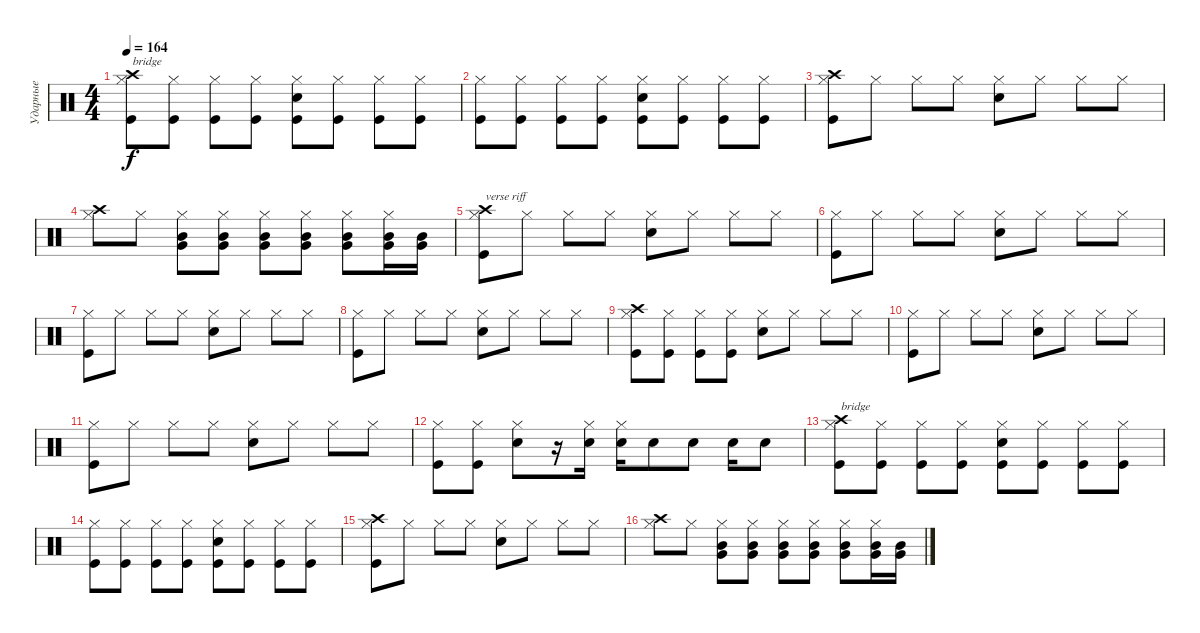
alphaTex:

\track ("Ударные" "Ударные") {instrument percussion}
\staff {score}
\articulation defaults
\ts (4 4)
\tempo 164
\clef neutral
\ks c
("Hi-Hat (closed)" "Crash high (hit)" "Kick (hit)").8{txt "bridge" dy f} ("Hi-Hat (closed)" "Kick (hit)").8 ("Hi-Hat (closed)" "Kick (hit)").8 ("Hi-Hat (closed)" "Kick (hit)").8 ("Hi-Hat (closed)" "Kick (hit)" "Snare (hit) 2").8 ("Hi-Hat (closed)" "Kick (hit)").8 ("Hi-Hat (closed)" "Kick (hit)").8 ("Hi-Hat (closed)" "Kick (hit)").8 |
("Hi-Hat (closed)" "Kick (hit)").8 ("Hi-Hat (closed)" "Kick (hit)").8 ("Hi-Hat (closed)" "Kick (hit)").8 ("Hi-Hat (closed)" "Kick (hit)").8 ("Hi-Hat (closed)" "Kick (hit)" "Snare (hit) 2").8 ("Hi-Hat (closed)" "Kick (hit)").8 ("Hi-Hat (closed)" "Kick (hit)").8 ("Hi-Hat (closed)" "Kick (hit)").8 |
("Hi-Hat (closed)" "Crash high (hit)" "Kick (hit)").8 "Hi-Hat (closed)".8 "Hi-Hat (closed)".8 "Hi-Hat (closed)".8 ("Hi-Hat (closed)" "Snare (hit) 2").8 "Hi-Hat (closed)".8 "Hi-Hat (closed)".8 "Hi-Hat (closed)".8 |
("Hi-Hat (closed)" "Crash high (hit)").8 "Hi-Hat (closed)".8 ("Hi-Hat (closed)" "Mid Tom (hit)" "Very Low Tom (hit)").8 ("Hi-Hat (closed)" "Mid Tom (hit)" "Very Low Tom (hit)").8 ("Hi-Hat (closed)" "Mid Tom (hit)" "Very Low Tom (hit)").8 ("Hi-Hat (closed)" "Mid Tom (hit)" "Very Low Tom (hit)").8 ("Hi-Hat (closed)" "Mid Tom (hit)" "Very Low Tom (hit)").8 ("Hi-Hat (closed)" "Mid Tom (hit)" "Very Low Tom (hit)").16 ("Very Low Tom (hit)" "Mid Tom (hit)").16 |
("Hi-Hat (closed)" "Crash high (hit)" "Kick (hit)").8{txt "verse riff"} "Hi-Hat (closed)".8 "Hi-Hat (closed)".8 "Hi-Hat (closed)".8 ("Hi-Hat (closed)" "Snare (hit) 2").8 "Hi-Hat (closed)".8 "Hi-Hat (closed)".8 "Hi-Hat (closed)".8 |
("Hi-Hat (closed)" "Kick (hit)").8 "Hi-Hat (closed)".8 "Hi-Hat (closed)".8 "Hi-Hat (closed)".8 ("Hi-Hat (closed)" "Snare (hit) 2").8 "Hi-Hat (closed)".8 "Hi-Hat (closed)".8 "Hi-Hat (closed)".8 |
("Hi-Hat (closed)" "Kick (hit)").8 "Hi-Hat (closed)".8 "Hi-Hat (closed)".8 "Hi-Hat (closed)".8 ("Hi-Hat (closed)" "Snare (hit) 2").8 "Hi-Hat (closed)".8 "Hi-Hat (closed)".8 "Hi-Hat (closed)".8 |
("Hi-Hat (closed)" "Kick (hit)").8 "Hi-Hat (closed)".8 "Hi-Hat (closed)".8 "Hi-Hat (closed)".8 ("Hi-Hat (closed)" "Snare (hit) 2").8 "Hi-Hat (closed)".8 "Hi-Hat (closed)".8 "Hi-Hat (closed)".8 |
("Hi-Hat (closed)" "Crash high (hit)" "Kick (hit)").8 ("Hi-Hat (closed)" "Kick (hit)").8 ("Hi-Hat (closed)" "Kick (hit)").8 ("Hi-Hat (closed)" "Kick (hit)").8 ("Hi-Hat (closed)" "Snare (hit) 2").8 "Hi-Hat (closed)".8 "Hi-Hat (closed)".8 "Hi-Hat (closed)".8 |
("Hi-Hat (closed)" "Kick (hit)").8 "Hi-Hat (closed)".8 "Hi-Hat (closed)".8 "Hi-Hat (closed)".8 ("Hi-Hat (closed)" "Snare (hit) 2").8 "Hi-Hat (closed)".8 "Hi-Hat (closed)".8 "Hi-Hat (closed)".8 |
("Hi-Hat (closed)" "Kick (hit)").8 "Hi-Hat (closed)".8 "Hi-Hat (closed)".8 "Hi-Hat (closed)".8 ("Hi-Hat (closed)" "Snare (hit) 2").8 "Hi-Hat (closed)".8 "Hi-Hat (closed)".8 "Hi-Hat (closed)".8 |
("Hi-Hat (closed)" "Kick (hit)").8 ("Hi-Hat (closed)" "Kick (hit)").8 ("Hi-Hat (closed)" "Snare (hit) 2").8 r.16 ("Hi-Hat (closed)" "Snare (hit) 2").16 ("Hi-Hat (closed)" "Snare (hit) 2").16 "Snare (hit) 2".8 "Snare (hit) 2".8 "Snare (hit) 2".16 "Snare (hit) 2".8 |
("Hi-Hat (closed)" "Crash high (hit)" "Kick (hit)").8{txt "bridge"} ("Hi-Hat (closed)" "Kick (hit)").8 ("Hi-Hat (closed)" "Kick (hit)").8 ("Hi-Hat (closed)" "Kick (hit)").8 ("Hi-Hat (closed)" "Kick (hit)" "Snare (hit) 2").8 ("Hi-Hat (closed)" "Kick (hit)").8 ("Hi-Hat (closed)" "Kick (hit)").8 ("Hi-Hat (closed)" "Kick (hit)").8 |
("Hi-Hat (closed)" "Kick (hit)").8 ("Hi-Hat (closed)" "Kick (hit)").8 ("Hi-Hat (closed)" "Kick (hit)").8 ("Hi-Hat (closed)" "Kick (hit)").8 ("Hi-Hat (closed)" "Kick (hit)" "Snare (hit) 2").8 ("Hi-Hat (closed)" "Kick (hit)").8 ("Hi-Hat (closed)" "Kick (hit)").8 ("Hi-Hat (closed)" "Kick (hit)").8 |
("Hi-Hat (closed)" "Crash high (hit)" "Kick (hit)").8 "Hi-Hat (closed)".8 "Hi-Hat (closed)".8 "Hi-Hat (closed)".8 ("Hi-Hat (closed)" "Snare (hit) 2").8 "Hi-Hat (closed)".8 "Hi-Hat (closed)".8 "Hi-Hat (closed)".8 |
("Hi-Hat (closed)" "Crash high (hit)").8 "Hi-Hat (closed)".8 ("Hi-Hat (closed)" "Mid Tom (hit)" "Very Low Tom (hit)").8 ("Hi-Hat (closed)" "Mid Tom (hit)" "Very Low Tom (hit)").8 ("Hi-Hat (closed)" "Mid Tom (hit)" "Very Low Tom (hit)").8 ("Hi-Hat (closed)" "Mid Tom (hit)" "Very Low Tom (hit)").8 ("Hi-Hat (closed)" "Mid Tom (hit)" "Very Low Tom (hit)").8 ("Hi-Hat (closed)" "Mid Tom (hit)" "Very Low Tom (hit)").16 ("Very Low Tom (hit)" "Mid Tom (hit)").16
